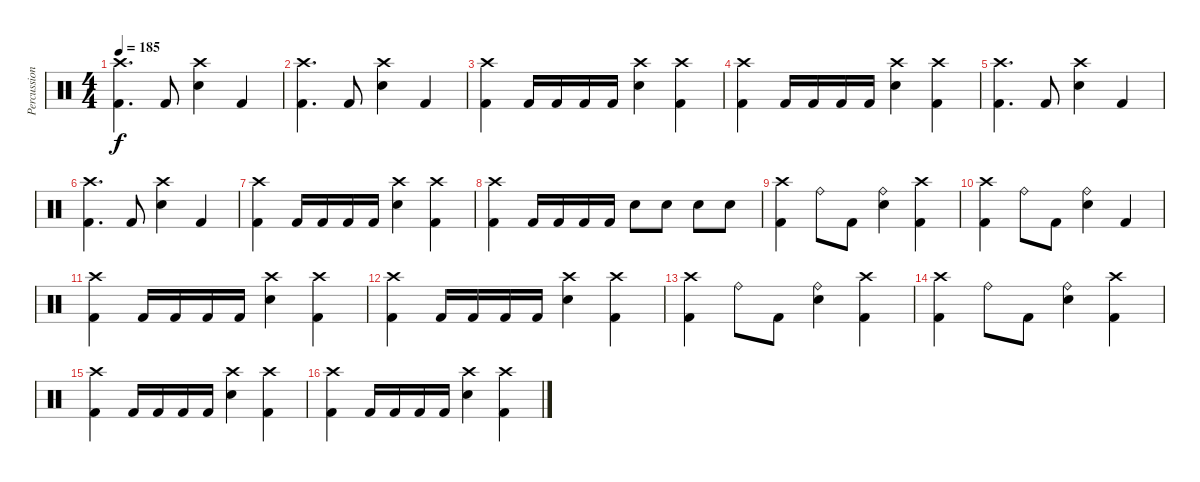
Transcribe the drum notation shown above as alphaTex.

\track ("Percussion" "Percussion") {instrument percussion}
\staff {score}
\articulation defaults
\ts (4 4)
\tempo 185
\clef neutral
\ks c
("Crash high (hit)" "Kick (hit) 2").4{d dy f} "Kick (hit) 2".8 ("Crash high (hit)" "Snare (hit) 2").4 "Kick (hit) 2".4 |
("Crash high (hit)" "Kick (hit) 2").4{d} "Kick (hit) 2".8 ("Crash high (hit)" "Snare (hit) 2").4 "Kick (hit) 2".4 |
("Crash high (hit)" "Kick (hit) 2").4 "Kick (hit) 2".16 "Kick (hit) 2".16 "Kick (hit) 2".16 "Kick (hit) 2".16 ("Crash high (hit)" "Snare (hit) 2").4 ("Crash high (hit)" "Kick (hit) 2").4 |
("Crash high (hit)" "Kick (hit) 2").4 "Kick (hit) 2".16 "Kick (hit) 2".16 "Kick (hit) 2".16 "Kick (hit) 2".16 ("Crash high (hit)" "Snare (hit) 2").4 ("Crash high (hit)" "Kick (hit) 2").4 |
("Crash high (hit)" "Kick (hit) 2").4{d} "Kick (hit) 2".8 ("Crash high (hit)" "Snare (hit) 2").4 "Kick (hit) 2".4 |
("Crash high (hit)" "Kick (hit) 2").4{d} "Kick (hit) 2".8 ("Crash high (hit)" "Snare (hit) 2").4 "Kick (hit) 2".4 |
("Crash high (hit)" "Kick (hit) 2").4 "Kick (hit) 2".16 "Kick (hit) 2".16 "Kick (hit) 2".16 "Kick (hit) 2".16 ("Crash high (hit)" "Snare (hit) 2").4 ("Crash high (hit)" "Kick (hit) 2").4 |
("Crash high (hit)" "Kick (hit) 2").4 "Kick (hit) 2".16 "Kick (hit) 2".16 "Kick (hit) 2".16 "Kick (hit) 2".16 "Snare (hit) 2".8 "Snare (hit) 2".8 "Snare (hit) 2".8 "Snare (hit) 2".8 |
("Crash high (hit)" "Kick (hit) 2").4 "Ride (bell)".8 "Kick (hit) 2".8 ("Ride (bell)" "Snare (hit) 2").4 ("Crash high (hit)" "Kick (hit) 2").4 |
("Crash high (hit)" "Kick (hit) 2").4 "Ride (bell)".8 "Kick (hit) 2".8 ("Ride (bell)" "Snare (hit) 2").4 "Kick (hit) 2".4 |
("Crash high (hit)" "Kick (hit) 2").4 "Kick (hit) 2".16 "Kick (hit) 2".16 "Kick (hit) 2".16 "Kick (hit) 2".16 ("Crash high (hit)" "Snare (hit) 2").4 ("Crash high (hit)" "Kick (hit) 2").4 |
("Crash high (hit)" "Kick (hit) 2").4 "Kick (hit) 2".16 "Kick (hit) 2".16 "Kick (hit) 2".16 "Kick (hit) 2".16 ("Crash high (hit)" "Snare (hit) 2").4 ("Crash high (hit)" "Kick (hit) 2").4 |
("Crash high (hit)" "Kick (hit) 2").4 "Ride (bell)".8 "Kick (hit) 2".8 ("Ride (bell)" "Snare (hit) 2").4 ("Crash high (hit)" "Kick (hit) 2").4 |
("Crash high (hit)" "Kick (hit) 2").4 "Ride (bell)".8 "Kick (hit) 2".8 ("Ride (bell)" "Snare (hit) 2").4 ("Crash high (hit)" "Kick (hit) 2").4 |
("Crash high (hit)" "Kick (hit) 2").4 "Kick (hit) 2".16 "Kick (hit) 2".16 "Kick (hit) 2".16 "Kick (hit) 2".16 ("Crash high (hit)" "Snare (hit) 2").4 ("Crash high (hit)" "Kick (hit) 2").4 |
("Crash high (hit)" "Kick (hit) 2").4 "Kick (hit) 2".16 "Kick (hit) 2".16 "Kick (hit) 2".16 "Kick (hit) 2".16 ("Crash high (hit)" "Snare (hit) 2").4 ("Crash high (hit)" "Kick (hit) 2").4
